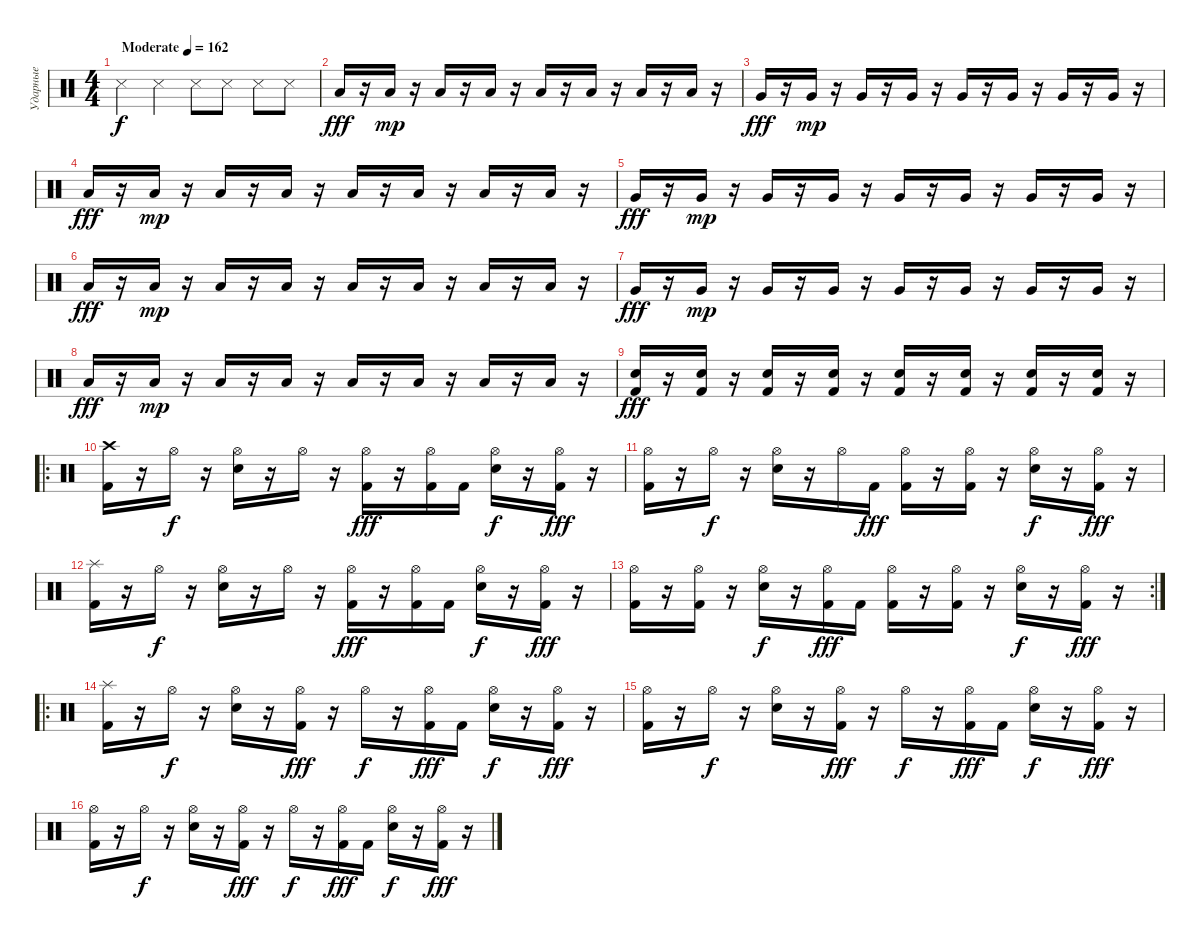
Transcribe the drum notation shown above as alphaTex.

\track ("Ударные" "Ударные") {instrument percussion}
\staff {score}
\articulation defaults
\ts (4 4)
\tempo (162 "Moderate")
\clef neutral
\ks c "Snare (side stick) 3".4{dy f} "Snare (side stick) 3".4 "Snare (side stick) 3".8 "Snare (side stick) 3".8 "Snare (side stick) 3".8 "Snare (side stick) 3".8
|
"Low Tom (hit)".16{dy fff} r.16 "Low Tom (hit)".16{dy mp} r.16 "Low Tom (hit)".16 r.16 "Low Tom (hit)".16 r.16 "Low Tom (hit)".16 r.16 "Low Tom (hit)".16 r.16 "Low Tom (hit)".16 r.16 "Low Tom (hit)".16 r.16 |
"Very Low Tom (hit)".16{dy fff} r.16 "Very Low Tom (hit)".16{dy mp} r.16 "Very Low Tom (hit)".16 r.16 "Very Low Tom (hit)".16 r.16 "Very Low Tom (hit)".16 r.16 "Very Low Tom (hit)".16 r.16 "Very Low Tom (hit)".16 r.16 "Very Low Tom (hit)".16 r.16 |
"Low Tom (hit)".16{dy fff} r.16 "Low Tom (hit)".16{dy mp} r.16 "Low Tom (hit)".16 r.16 "Low Tom (hit)".16 r.16 "Low Tom (hit)".16 r.16 "Low Tom (hit)".16 r.16 "Low Tom (hit)".16 r.16 "Low Tom (hit)".16 r.16 |
"Very Low Tom (hit)".16{dy fff} r.16 "Very Low Tom (hit)".16{dy mp} r.16 "Very Low Tom (hit)".16 r.16 "Very Low Tom (hit)".16 r.16 "Very Low Tom (hit)".16 r.16 "Very Low Tom (hit)".16 r.16 "Very Low Tom (hit)".16 r.16 "Very Low Tom (hit)".16 r.16 |
"Low Tom (hit)".16{dy fff} r.16 "Low Tom (hit)".16{dy mp} r.16 "Low Tom (hit)".16 r.16 "Low Tom (hit)".16 r.16 "Low Tom (hit)".16 r.16 "Low Tom (hit)".16 r.16 "Low Tom (hit)".16 r.16 "Low Tom (hit)".16 r.16 |
"Very Low Tom (hit)".16{dy fff} r.16 "Very Low Tom (hit)".16{dy mp} r.16 "Very Low Tom (hit)".16 r.16 "Very Low Tom (hit)".16 r.16 "Very Low Tom (hit)".16 r.16 "Very Low Tom (hit)".16 r.16 "Very Low Tom (hit)".16 r.16 "Very Low Tom (hit)".16 r.16 |
"Low Tom (hit)".16{dy fff} r.16 "Low Tom (hit)".16{dy mp} r.16 "Low Tom (hit)".16 r.16 "Low Tom (hit)".16 r.16 "Low Tom (hit)".16 r.16 "Low Tom (hit)".16 r.16 "Low Tom (hit)".16 r.16 "Low Tom (hit)".16 r.16 |
("Electric Snare (hit)" "Kick (hit) 2").16{dy fff} r.16 ("Electric Snare (hit)" "Kick (hit) 2").16 r.16 ("Electric Snare (hit)" "Kick (hit) 2").16 r.16 ("Electric Snare (hit)" "Kick (hit) 2").16 r.16 ("Electric Snare (hit)" "Kick (hit) 2").16 r.16 ("Electric Snare (hit)" "Kick (hit) 2").16 r.16 ("Electric Snare (hit)" "Kick (hit) 2").16 r.16 ("Electric Snare (hit)" "Kick (hit) 2").16 r.16 |
\ro
("Crash high (hit)" "Kick (hit) 2").16 r.16 "Hi-Hat (open)".16{dy f} r.16 ("Hi-Hat (open)" "Electric Snare (hit)").16 r.16 "Hi-Hat (open)".16 r.16 ("Hi-Hat (open)" "Kick (hit) 2").16{dy fff} r.16 ("Hi-Hat (open)" "Kick (hit) 2").16 "Kick (hit) 2".16 ("Hi-Hat (open)" "Electric Snare (hit)").16{dy f} r.16 ("Hi-Hat (open)" "Kick (hit) 2").16{dy fff} r.16 |
("Hi-Hat (open)" "Kick (hit) 2").16 r.16 "Hi-Hat (open)".16{dy f} r.16 ("Hi-Hat (open)" "Electric Snare (hit)").16 r.16 "Hi-Hat (open)".16 "Kick (hit) 2".16{dy fff} ("Hi-Hat (open)" "Kick (hit) 2").16 r.16 ("Hi-Hat (open)" "Kick (hit) 2").16 r.16 ("Hi-Hat (open)" "Electric Snare (hit)").16{dy f} r.16 ("Hi-Hat (open)" "Kick (hit) 2").16{dy fff} r.16 |
("Splash (hit)" "Kick (hit) 2").16 r.16 "Hi-Hat (open)".16{dy f} r.16 ("Hi-Hat (open)" "Electric Snare (hit)").16 r.16 "Hi-Hat (open)".16 r.16 ("Hi-Hat (open)" "Kick (hit) 2").16{dy fff} r.16 ("Hi-Hat (open)" "Kick (hit) 2").16 "Kick (hit) 2".16 ("Hi-Hat (open)" "Electric Snare (hit)").16{dy f} r.16 ("Hi-Hat (open)" "Kick (hit) 2").16{dy fff} r.16 |
\rc 2
("Hi-Hat (open)" "Kick (hit) 2").16 r.16 ("Hi-Hat (open)" "Kick (hit) 2").16 r.16 ("Hi-Hat (open)" "Electric Snare (hit)").16{dy f} r.16 ("Hi-Hat (open)" "Kick (hit) 2").16{dy fff} "Kick (hit) 2".16 ("Hi-Hat (open)" "Kick (hit) 2").16 r.16 ("Hi-Hat (open)" "Kick (hit) 2").16 r.16 ("Hi-Hat (open)" "Electric Snare (hit)").16{dy f} r.16 ("Hi-Hat (open)" "Kick (hit) 2").16{dy fff} r.16 |
\ro
("Splash (hit)" "Kick (hit) 2").16 r.16 "Hi-Hat (open)".16{dy f} r.16 ("Hi-Hat (open)" "Electric Snare (hit)").16 r.16 ("Hi-Hat (open)" "Kick (hit) 2").16{dy fff} r.16 "Hi-Hat (open)".16{dy f} r.16 ("Hi-Hat (open)" "Kick (hit) 2").16{dy fff} "Kick (hit) 2".16 ("Hi-Hat (open)" "Electric Snare (hit)").16{dy f} r.16 ("Hi-Hat (open)" "Kick (hit) 2").16{dy fff} r.16 |
("Hi-Hat (open)" "Kick (hit) 2").16 r.16 "Hi-Hat (open)".16{dy f} r.16 ("Hi-Hat (open)" "Electric Snare (hit)").16 r.16 ("Hi-Hat (open)" "Kick (hit) 2").16{dy fff} r.16 "Hi-Hat (open)".16{dy f} r.16 ("Hi-Hat (open)" "Kick (hit) 2").16{dy fff} "Kick (hit) 2".16 ("Hi-Hat (open)" "Electric Snare (hit)").16{dy f} r.16 ("Hi-Hat (open)" "Kick (hit) 2").16{dy fff} r.16 |
("Hi-Hat (open)" "Kick (hit) 2").16 r.16 "Hi-Hat (open)".16{dy f} r.16 ("Hi-Hat (open)" "Electric Snare (hit)").16 r.16 ("Hi-Hat (open)" "Kick (hit) 2").16{dy fff} r.16 "Hi-Hat (open)".16{dy f} r.16 ("Hi-Hat (open)" "Kick (hit) 2").16{dy fff} "Kick (hit) 2".16 ("Hi-Hat (open)" "Electric Snare (hit)").16{dy f} r.16 ("Hi-Hat (open)" "Kick (hit) 2").16{dy fff} r.16
